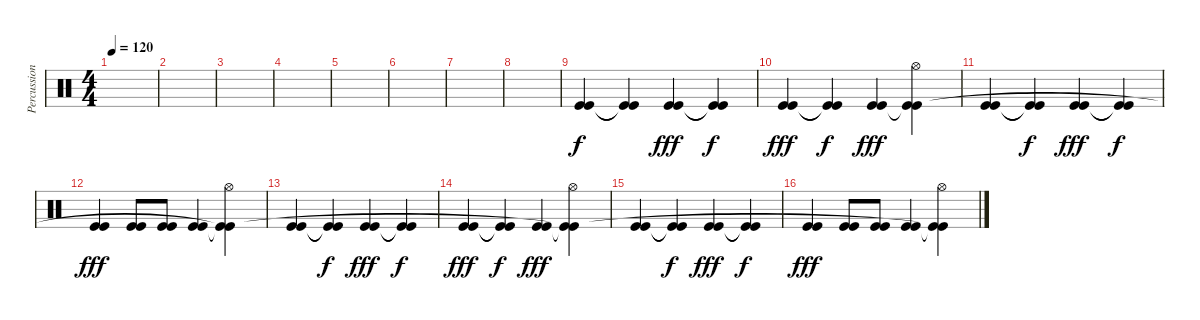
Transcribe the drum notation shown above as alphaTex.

\track ("Percussions" "Percussion") {instrument percussion}
\staff {score}
\articulation defaults
\ts (4 4)
\tempo 120
\clef neutral
\ks c
|
|
|
|
|
|
|
|
("Kick (hit)" "Kick (hit)").4 ("Kick (hit)"{t} "Kick (hit)"{t}).4{dy f} ("Kick (hit)" "Kick (hit)").4{dy fff} ("Kick (hit)"{t} "Kick (hit)"{t}).4{dy f} |
("Kick (hit)" "Kick (hit)").4{dy fff} ("Kick (hit)"{t} "Kick (hit)"{t}).4{dy f} ("Kick (hit)" "Kick (hit)").4{dy fff} ("Hi-Hat (open)" "Kick (hit)"{t} "Kick (hit)").4 |
("Kick (hit)" "Kick (hit)").4 ("Kick (hit)"{t} "Kick (hit)"{t}).4{dy f} ("Kick (hit)" "Kick (hit)").4{dy fff} ("Kick (hit)"{t} "Kick (hit)"{t}).4{dy f} |
("Kick (hit)" "Kick (hit)").4{dy fff} ("Kick (hit)" "Kick (hit)").8 ("Kick (hit)" "Kick (hit)").8 ("Kick (hit)" "Kick (hit)").4 ("Hi-Hat (open)" "Kick (hit)"{t} "Kick (hit)"{t}).4 |
("Kick (hit)" "Kick (hit)").4 ("Kick (hit)"{t} "Kick (hit)"{t}).4{dy f} ("Kick (hit)" "Kick (hit)").4{dy fff} ("Kick (hit)"{t} "Kick (hit)"{t}).4{dy f} |
("Kick (hit)" "Kick (hit)").4{dy fff} ("Kick (hit)"{t} "Kick (hit)"{t}).4{dy f} ("Kick (hit)" "Kick (hit)").4{dy fff} ("Hi-Hat (open)" "Kick (hit)"{t} "Kick (hit)"{t}).4 |
("Kick (hit)" "Kick (hit)").4 ("Kick (hit)"{t} "Kick (hit)"{t}).4{dy f} ("Kick (hit)" "Kick (hit)").4{dy fff} ("Kick (hit)"{t} "Kick (hit)"{t}).4{dy f} |
("Kick (hit)" "Kick (hit)").4{dy fff} ("Kick (hit)" "Kick (hit)").8 ("Kick (hit)" "Kick (hit)").8 ("Kick (hit)" "Kick (hit)").4 ("Hi-Hat (open)" "Kick (hit)"{t} "Kick (hit)"{t}).4
